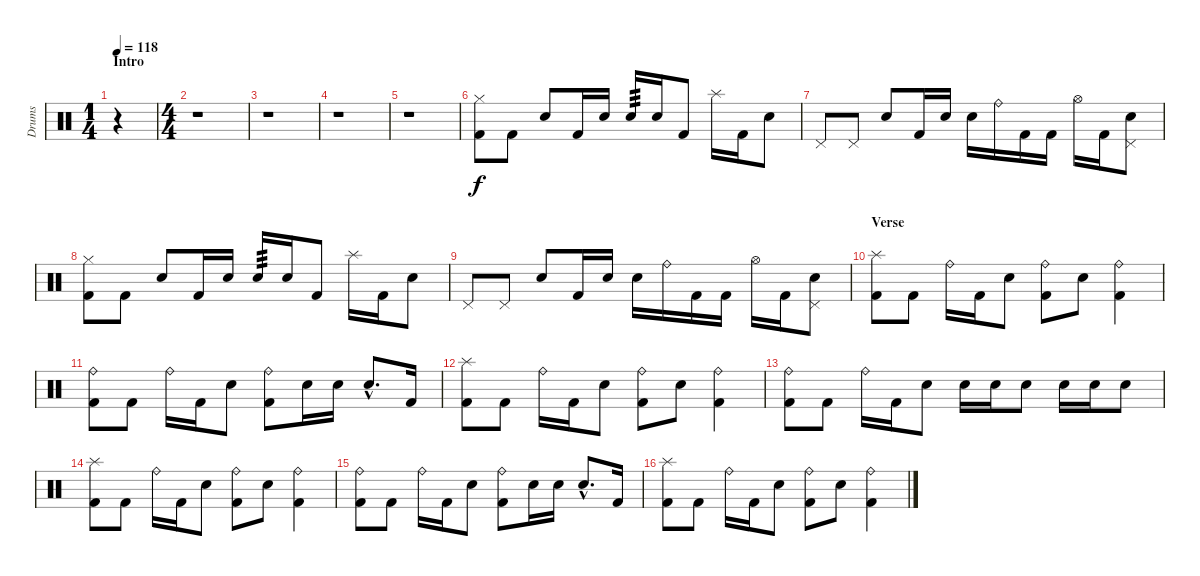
\track ("Drums" "Drums") {instrument percussion}
\staff {score}
\articulation defaults
\ts (1 4)
\section ("" "Intro")
\tempo 118
\clef neutral
\ks c
r.4{dy f} |
\ts (4 4)
r.1 |
r.1 |
r.1 |
r.1 |
("Hi-Hat (closed)" "Kick (hit) 2").8 "Kick (hit) 2".8 "Snare (hit) 2".8 "Kick (hit) 2".16 "Snare (hit) 2".16 "Snare (hit) 2".16{tp 3} "Snare (hit) 2".16 "Kick (hit) 2".8 "Splash (hit)".16 "Kick (hit) 2".16 "Snare (hit) 2".8 |
"Pedal Hi-Hat (hit)".8 "Pedal Hi-Hat (hit)".8 "Snare (hit) 2".8 "Kick (hit) 2".16 "Snare (hit) 2".16 "Snare (hit) 2".16 "Ride (bell)".16 "Kick (hit) 2".16 "Kick (hit) 2".16 "Hi-Hat (open)".16 "Kick (hit) 2".16 ("Pedal Hi-Hat (hit)" "Snare (hit) 2").8 |
("Hi-Hat (closed)" "Kick (hit) 2").8 "Kick (hit) 2".8 "Snare (hit) 2".8 "Kick (hit) 2".16 "Snare (hit) 2".16 "Snare (hit) 2".16{tp 3} "Snare (hit) 2".16 "Kick (hit) 2".8 "Splash (hit)".16 "Kick (hit) 2".16 "Snare (hit) 2".8 |
"Pedal Hi-Hat (hit)".8 "Pedal Hi-Hat (hit)".8 "Snare (hit) 2".8 "Kick (hit) 2".16 "Snare (hit) 2".16 "Snare (hit) 2".16 "Ride (bell)".16 "Kick (hit) 2".16 "Kick (hit) 2".16 "Hi-Hat (open)".16 "Kick (hit) 2".16 ("Pedal Hi-Hat (hit)" "Snare (hit) 2").8 |
\section ("" "Verse")
("Splash (hit)" "Kick (hit) 2").8 "Kick (hit) 2".8 "Ride (bell)".16 "Kick (hit) 2".16 "Snare (hit) 2".8 ("Ride (bell)" "Kick (hit) 2").8 "Snare (hit) 2".8 ("Ride (bell)" "Kick (hit) 2").4 |
("Ride (bell)" "Kick (hit) 2").8 "Kick (hit) 2".8 "Ride (bell)".16 "Kick (hit) 2".16 "Snare (hit) 2".8 ("Ride (bell)" "Kick (hit) 2").8 "Snare (hit) 2".16 "Snare (hit) 2".16 "Snare (hit) 2"{hac}.8{d} "Kick (hit) 2".16 |
("Splash (hit)" "Kick (hit) 2").8 "Kick (hit) 2".8 "Ride (bell)".16 "Kick (hit) 2".16 "Snare (hit) 2".8 ("Ride (bell)" "Kick (hit) 2").8 "Snare (hit) 2".8 ("Ride (bell)" "Kick (hit) 2").4 |
("Ride (bell)" "Kick (hit) 2").8 "Kick (hit) 2".8 "Ride (bell)".16 "Kick (hit) 2".16 "Snare (hit) 2".8 "Snare (hit) 2".16 "Snare (hit) 2".16 "Snare (hit) 2".8 "Snare (hit) 2".16 "Snare (hit) 2".16 "Snare (hit) 2".8 |
("Splash (hit)" "Kick (hit) 2").8 "Kick (hit) 2".8 "Ride (bell)".16 "Kick (hit) 2".16 "Snare (hit) 2".8 ("Ride (bell)" "Kick (hit) 2").8 "Snare (hit) 2".8 ("Ride (bell)" "Kick (hit) 2").4 |
("Ride (bell)" "Kick (hit) 2").8 "Kick (hit) 2".8 "Ride (bell)".16 "Kick (hit) 2".16 "Snare (hit) 2".8 ("Ride (bell)" "Kick (hit) 2").8 "Snare (hit) 2".16 "Snare (hit) 2".16 "Snare (hit) 2"{hac}.8{d} "Kick (hit) 2".16 |
("Splash (hit)" "Kick (hit) 2").8 "Kick (hit) 2".8 "Ride (bell)".16 "Kick (hit) 2".16 "Snare (hit) 2".8 ("Ride (bell)" "Kick (hit) 2").8 "Snare (hit) 2".8 ("Ride (bell)" "Kick (hit) 2").4
